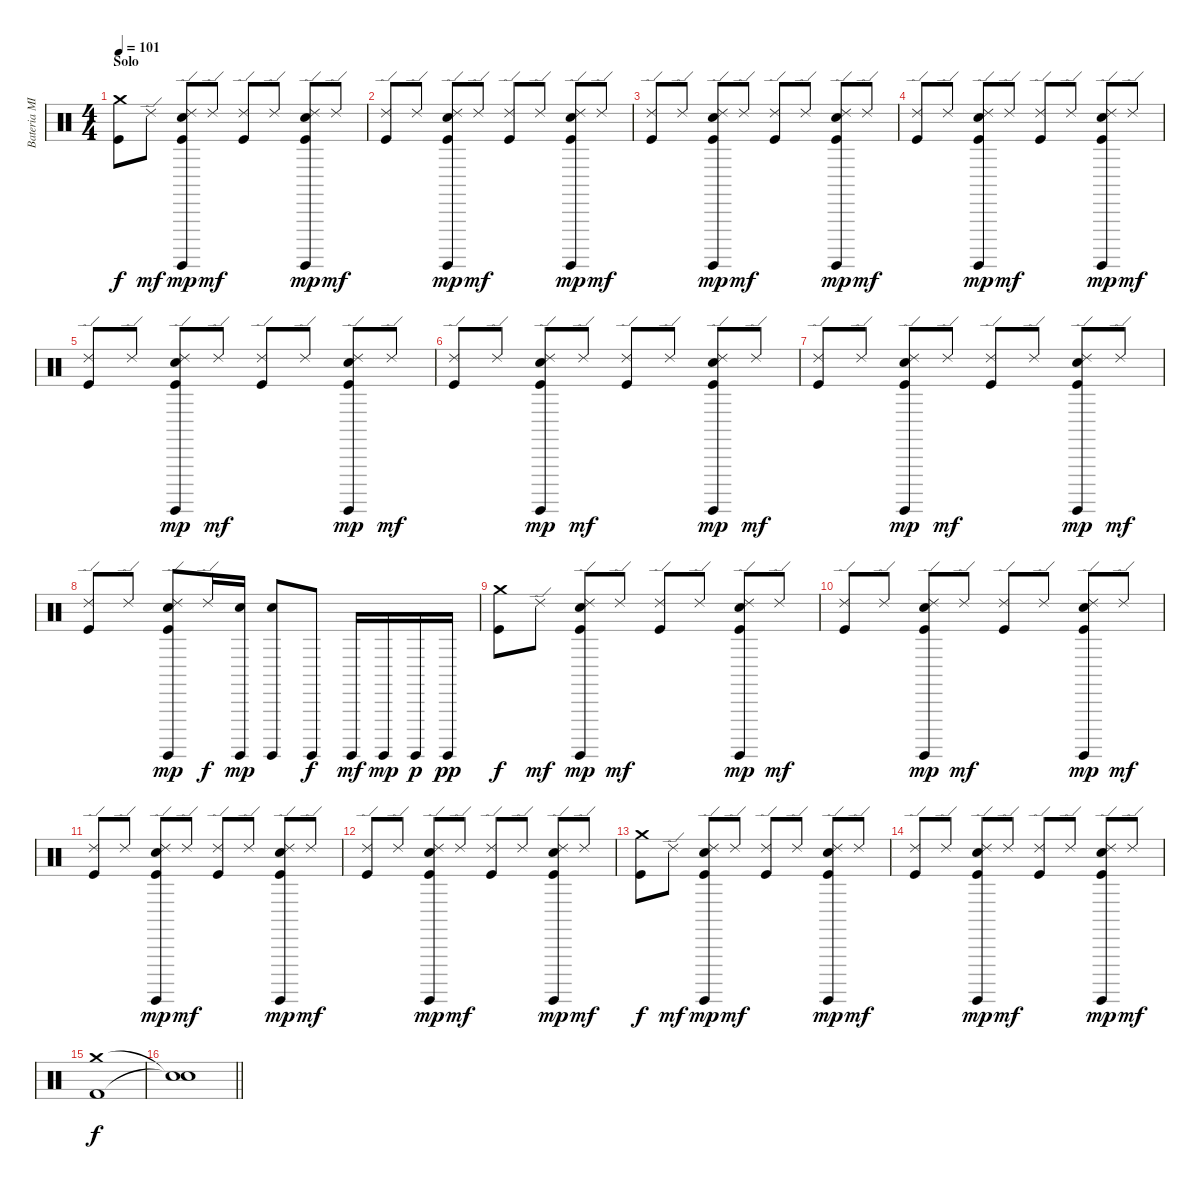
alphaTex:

\track ("Bateria MIDI" "Bateria MI") {instrument percussion}
\staff {score}
\articulation defaults
\ts (4 4)
\section ("" "Solo")
\tempo 101
\clef neutral
\ks c
("Crash medium (hit)" "Kick (hit)").8{dy f} "Ride (edge) 2".8{dy mf} ("Ride (edge) 2" "Surdo (hit)" "Electric Snare (hit)" "Kick (hit)").8{dy mp} "Ride (edge) 2".8{dy mf} ("Ride (edge) 2" "Kick (hit)").8 "Ride (edge) 2".8 ("Ride (edge) 2" "Surdo (hit)" "Electric Snare (hit)" "Kick (hit)").8{dy mp} "Ride (edge) 2".8{dy mf} |
("Ride (edge) 2" "Kick (hit)").8 "Ride (edge) 2".8 ("Ride (edge) 2" "Surdo (hit)" "Electric Snare (hit)" "Kick (hit)").8{dy mp} "Ride (edge) 2".8{dy mf} ("Ride (edge) 2" "Kick (hit)").8 "Ride (edge) 2".8 ("Ride (edge) 2" "Surdo (hit)" "Electric Snare (hit)" "Kick (hit)").8{dy mp} "Ride (edge) 2".8{dy mf} |
("Ride (edge) 2" "Kick (hit)").8 "Ride (edge) 2".8 ("Ride (edge) 2" "Surdo (hit)" "Electric Snare (hit)" "Kick (hit)").8{dy mp} "Ride (edge) 2".8{dy mf} ("Ride (edge) 2" "Kick (hit)").8 "Ride (edge) 2".8 ("Ride (edge) 2" "Surdo (hit)" "Electric Snare (hit)" "Kick (hit)").8{dy mp} "Ride (edge) 2".8{dy mf} |
("Ride (edge) 2" "Kick (hit)").8 "Ride (edge) 2".8 ("Ride (edge) 2" "Surdo (hit)" "Electric Snare (hit)" "Kick (hit)").8{dy mp} "Ride (edge) 2".8{dy mf} ("Ride (edge) 2" "Kick (hit)").8 "Ride (edge) 2".8 ("Ride (edge) 2" "Surdo (hit)" "Electric Snare (hit)" "Kick (hit)").8{dy mp} "Ride (edge) 2".8{dy mf} |
("Ride (edge) 2" "Kick (hit)").8 "Ride (edge) 2".8 ("Ride (edge) 2" "Surdo (hit)" "Electric Snare (hit)" "Kick (hit)").8{dy mp} "Ride (edge) 2".8{dy mf} ("Ride (edge) 2" "Kick (hit)").8 "Ride (edge) 2".8 ("Ride (edge) 2" "Surdo (hit)" "Electric Snare (hit)" "Kick (hit)").8{dy mp} "Ride (edge) 2".8{dy mf} |
("Ride (edge) 2" "Kick (hit)").8 "Ride (edge) 2".8 ("Ride (edge) 2" "Surdo (hit)" "Electric Snare (hit)" "Kick (hit)").8{dy mp} "Ride (edge) 2".8{dy mf} ("Ride (edge) 2" "Kick (hit)").8 "Ride (edge) 2".8 ("Ride (edge) 2" "Surdo (hit)" "Electric Snare (hit)" "Kick (hit)").8{dy mp} "Ride (edge) 2".8{dy mf} |
("Ride (edge) 2" "Kick (hit)").8 "Ride (edge) 2".8 ("Ride (edge) 2" "Surdo (hit)" "Electric Snare (hit)" "Kick (hit)").8{dy mp} "Ride (edge) 2".8{dy mf} ("Ride (edge) 2" "Kick (hit)").8 "Ride (edge) 2".8 ("Ride (edge) 2" "Surdo (hit)" "Electric Snare (hit)" "Kick (hit)").8{dy mp} "Ride (edge) 2".8{dy mf} |
("Ride (edge) 2" "Kick (hit)").8 "Ride (edge) 2".8 ("Ride (edge) 2" "Surdo (hit)" "Electric Snare (hit)" "Kick (hit)").8{dy mp} "Ride (edge) 2".16{dy f} ("Surdo (hit)" "Electric Snare (hit)").16{dy mp} ("Surdo (hit)" "Electric Snare (hit)").8 "Surdo (hit)".8{dy f} "Surdo (hit)".16{dy mf} "Surdo (hit)".16{dy mp} "Surdo (hit)".16{dy p} "Surdo (hit)".16{dy pp} |
("Crash medium (hit)" "Kick (hit)").8{dy f} "Ride (edge) 2".8{dy mf} ("Ride (edge) 2" "Surdo (hit)" "Electric Snare (hit)" "Kick (hit)").8{dy mp} "Ride (edge) 2".8{dy mf} ("Ride (edge) 2" "Kick (hit)").8 "Ride (edge) 2".8 ("Ride (edge) 2" "Surdo (hit)" "Electric Snare (hit)" "Kick (hit)").8{dy mp} "Ride (edge) 2".8{dy mf} |
("Ride (edge) 2" "Kick (hit)").8 "Ride (edge) 2".8 ("Ride (edge) 2" "Surdo (hit)" "Electric Snare (hit)" "Kick (hit)").8{dy mp} "Ride (edge) 2".8{dy mf} ("Ride (edge) 2" "Kick (hit)").8 "Ride (edge) 2".8 ("Ride (edge) 2" "Surdo (hit)" "Electric Snare (hit)" "Kick (hit)").8{dy mp} "Ride (edge) 2".8{dy mf} |
("Ride (edge) 2" "Kick (hit)").8 "Ride (edge) 2".8 ("Ride (edge) 2" "Surdo (hit)" "Electric Snare (hit)" "Kick (hit)").8{dy mp} "Ride (edge) 2".8{dy mf} ("Ride (edge) 2" "Kick (hit)").8 "Ride (edge) 2".8 ("Ride (edge) 2" "Surdo (hit)" "Electric Snare (hit)" "Kick (hit)").8{dy mp} "Ride (edge) 2".8{dy mf} |
("Ride (edge) 2" "Kick (hit)").8 "Ride (edge) 2".8 ("Ride (edge) 2" "Surdo (hit)" "Electric Snare (hit)" "Kick (hit)").8{dy mp} "Ride (edge) 2".8{dy mf} ("Ride (edge) 2" "Kick (hit)").8 "Ride (edge) 2".8 ("Ride (edge) 2" "Surdo (hit)" "Electric Snare (hit)" "Kick (hit)").8{dy mp} "Ride (edge) 2".8{dy mf} |
("Crash medium (hit)" "Kick (hit)").8{dy f} "Ride (edge) 2".8{dy mf} ("Ride (edge) 2" "Surdo (hit)" "Electric Snare (hit)" "Kick (hit)").8{dy mp} "Ride (edge) 2".8{dy mf} ("Ride (edge) 2" "Kick (hit)").8 "Ride (edge) 2".8 ("Ride (edge) 2" "Surdo (hit)" "Electric Snare (hit)" "Kick (hit)").8{dy mp} "Ride (edge) 2".8{dy mf} |
("Ride (edge) 2" "Kick (hit)").8 "Ride (edge) 2".8 ("Ride (edge) 2" "Surdo (hit)" "Electric Snare (hit)" "Kick (hit)").8{dy mp} "Ride (edge) 2".8{dy mf} ("Ride (edge) 2" "Kick (hit)").8 "Ride (edge) 2".8 ("Ride (edge) 2" "Surdo (hit)" "Electric Snare (hit)" "Kick (hit)").8{dy mp} "Ride (edge) 2".8{dy mf} |
("Crash medium (hit)" "Kick (hit) 2").1{dy f} |
\barLineRight lightlight
("Snare (hit)"{t} "Snare (hit)"{t}).1
